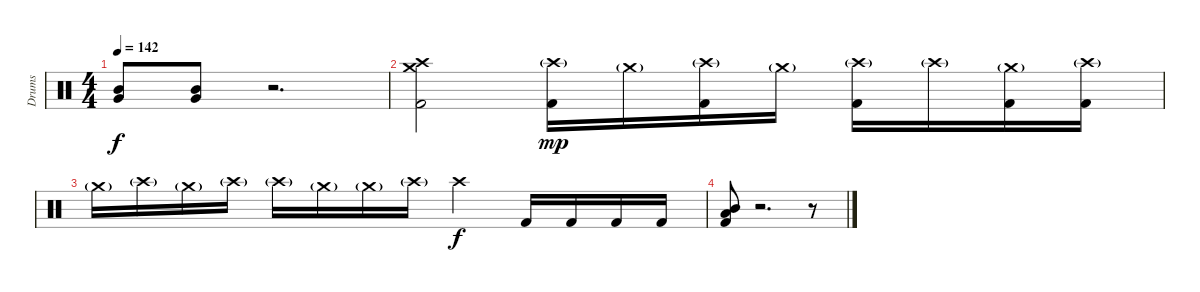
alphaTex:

\track ("Drums" "Drums") {instrument percussion}
\staff {score}
\articulation defaults
\ts (4 4)
\tempo 142
\clef neutral
\ks c
("Mid Tom (hit)" "Very Low Tom (hit)").8{dy f} ("Mid Tom (hit)" "Very Low Tom (hit)").8 r.2{d} |
("Crash high (hit)" "Kick (hit) 2" "Crash medium (hit)").2 ("Kick (hit) 2" "Crash high (hit)"{g}).16{dy mp} "Crash medium (hit)"{g}.16 ("Kick (hit) 2" "Crash high (hit)"{g}).16 "Crash medium (hit)"{g}.16 ("Kick (hit) 2" "Crash high (hit)"{g}).16 "Crash high (hit)"{g}.16 ("Kick (hit) 2" "Crash medium (hit)"{g}).16 ("Kick (hit) 2" "Crash high (hit)"{g}).16 |
"Crash medium (hit)"{g}.16 "Crash high (hit)"{g}.16 "Crash medium (hit)"{g}.16 "Crash high (hit)"{g}.16 "Crash high (hit)"{g}.16 "Crash medium (hit)"{g}.16 "Crash medium (hit)"{g}.16 "Crash high (hit)"{g}.16 "Crash high (hit)".4{dy f} "Kick (hit) 2".16 "Kick (hit) 2".16 "Kick (hit) 2".16 "Kick (hit) 2".16 |
("Kick (hit) 2" "Mid Tom (hit)" "Low Tom (hit)").8 r.2{d} r.8
